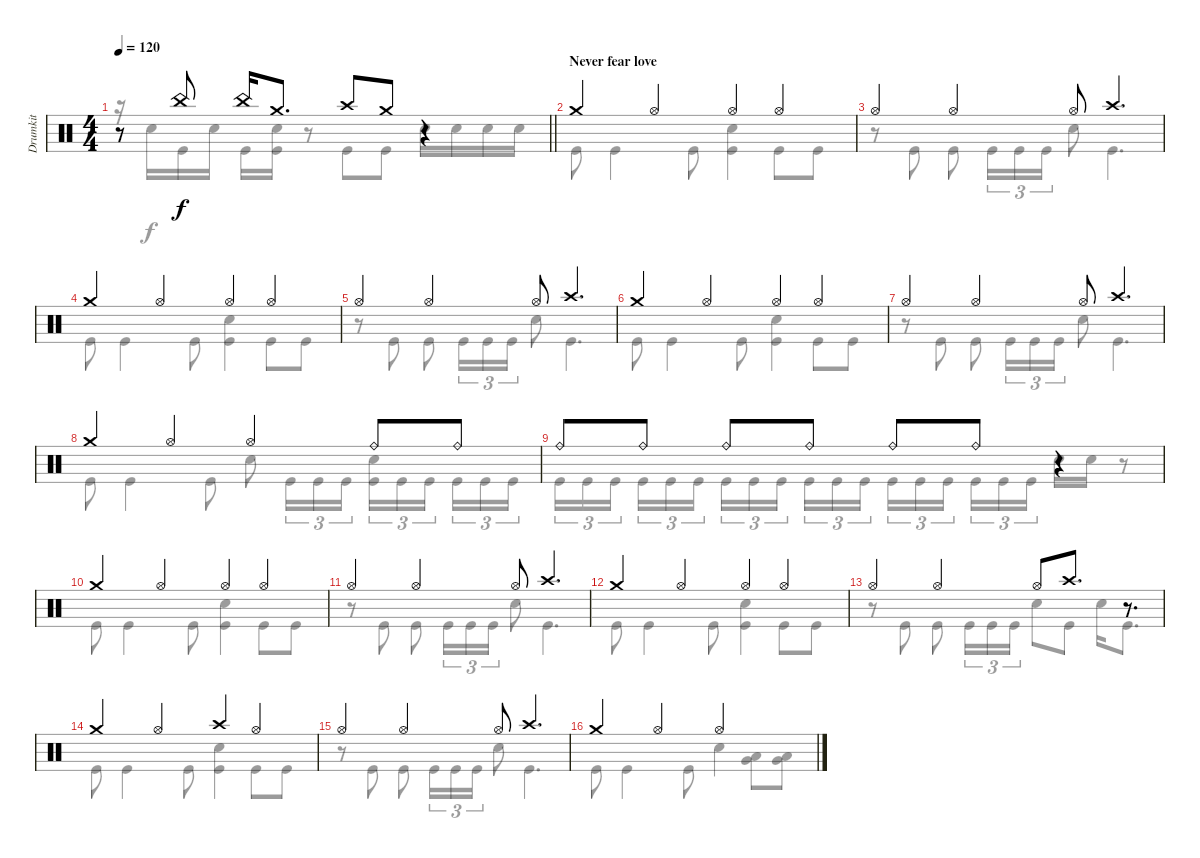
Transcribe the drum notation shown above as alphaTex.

\track ("Drumkit" "Drumkit") {instrument percussion}
\staff {score}
\articulation defaults
\voice
\ts (4 4)
\tempo 120
\clef neutral
\barLineRight lightlight
\ks c
r.8{dy f} "China (hit)".8 "China (hit)".16 "Crash medium (hit)".8{d} "Crash high (hit)".8 "Crash medium (hit)".8 r.4 |
\section ("" "Never fear love")
"Crash medium (hit)".4 "Hi-Hat (open)".4 "Hi-Hat (open)".4 "Hi-Hat (open)".4 |
"Hi-Hat (open)".4 "Hi-Hat (open)".4 "Hi-Hat (open)".8 "Crash high (hit)".4{d} |
"Crash medium (hit)".4 "Hi-Hat (open)".4 "Hi-Hat (open)".4 "Hi-Hat (open)".4 |
"Hi-Hat (open)".4 "Hi-Hat (open)".4 "Hi-Hat (open)".8 "Crash high (hit)".4{d} |
"Crash medium (hit)".4 "Hi-Hat (open)".4 "Hi-Hat (open)".4 "Hi-Hat (open)".4 |
"Hi-Hat (open)".4 "Hi-Hat (open)".4 "Hi-Hat (open)".8 "Crash high (hit)".4{d} |
"Crash medium (hit)".4 "Hi-Hat (open)".4 "Hi-Hat (open)".4 "Ride (bell)".8 "Ride (bell)".8 |
"Ride (bell)".8 "Ride (bell)".8 "Ride (bell)".8 "Ride (bell)".8 "Ride (bell)".8 "Ride (bell)".8 r.4 |
"Crash medium (hit)".4 "Hi-Hat (open)".4 "Hi-Hat (open)".4 "Hi-Hat (open)".4 |
"Hi-Hat (open)".4 "Hi-Hat (open)".4 "Hi-Hat (open)".8 "Crash high (hit)".4{d} |
"Crash medium (hit)".4 "Hi-Hat (open)".4 "Hi-Hat (open)".4 "Hi-Hat (open)".4 |
"Hi-Hat (open)".4 "Hi-Hat (open)".4 "Hi-Hat (open)".8 "Crash high (hit)".8{d} r.8{d} |
"Crash medium (hit)".4 "Hi-Hat (open)".4 "Crash high (hit)".4 "Hi-Hat (open)".4 |
"Hi-Hat (open)".4 "Hi-Hat (open)".4 "Hi-Hat (open)".8 "Crash high (hit)".4{d} |
"Crash medium (hit)".4 "Hi-Hat (open)".4 "Hi-Hat (open)".2
\voice
\clef neutral
\ottava regular
\simile none
\barLineRight lightlight
\ks c
r.16{dy f} "Snare (hit) 2".16 "Kick (hit)".16 "Snare (hit) 2".16 "Kick (hit)".16 ("Snare (hit) 2" "Kick (hit)").16 r.8 "Kick (hit)".8 "Kick (hit)".8 "Snare (hit) 2".16 "Snare (hit) 2".16 "Snare (hit) 2".16 "Snare (hit) 2".16 |
"Kick (hit)".8 "Kick (hit)".4 "Kick (hit)".8 ("Snare (hit) 2" "Kick (hit)").4 "Kick (hit)".8 "Kick (hit)".8 |
r.8 "Kick (hit)".8 "Kick (hit)".8 "Kick (hit)".16{tu (3 2)} "Kick (hit)".16{tu (3 2)} "Kick (hit)".16{tu (3 2)} "Snare (hit) 2".8 "Kick (hit)".4{d} |
"Kick (hit)".8 "Kick (hit)".4 "Kick (hit)".8 ("Snare (hit) 2" "Kick (hit)").4 "Kick (hit)".8 "Kick (hit)".8 |
r.8 "Kick (hit)".8 "Kick (hit)".8 "Kick (hit)".16{tu (3 2)} "Kick (hit)".16{tu (3 2)} "Kick (hit)".16{tu (3 2)} "Snare (hit) 2".8 "Kick (hit)".4{d} |
"Kick (hit)".8 "Kick (hit)".4 "Kick (hit)".8 ("Snare (hit) 2" "Kick (hit)").4 "Kick (hit)".8 "Kick (hit)".8 |
r.8 "Kick (hit)".8 "Kick (hit)".8 "Kick (hit)".16{tu (3 2)} "Kick (hit)".16{tu (3 2)} "Kick (hit)".16{tu (3 2)} "Snare (hit) 2".8 "Kick (hit)".4{d} |
"Kick (hit)".8 "Kick (hit)".4 "Kick (hit)".8 "Snare (hit) 2".8 "Kick (hit)".16{tu (3 2)} "Kick (hit)".16{tu (3 2)} "Kick (hit)".16{tu (3 2)} ("Snare (hit) 2" "Kick (hit)").16{tu (3 2)} "Kick (hit)".16{tu (3 2)} "Kick (hit)".16{tu (3 2) beam splitsecondary} "Kick (hit)".16{tu (3 2)} "Kick (hit)".16{tu (3 2)} "Kick (hit)".16{tu (3 2)} |
"Kick (hit)".16{tu (3 2)} "Kick (hit)".16{tu (3 2)} "Kick (hit)".16{tu (3 2) beam splitsecondary} "Kick (hit)".16{tu (3 2)} "Kick (hit)".16{tu (3 2)} "Kick (hit)".16{tu (3 2)} "Kick (hit)".16{tu (3 2)} "Kick (hit)".16{tu (3 2)} "Kick (hit)".16{tu (3 2) beam splitsecondary} "Kick (hit)".16{tu (3 2)} "Kick (hit)".16{tu (3 2)} "Kick (hit)".16{tu (3 2)} "Kick (hit)".16{tu (3 2)} "Kick (hit)".16{tu (3 2)} "Kick (hit)".16{tu (3 2) beam splitsecondary} "Kick (hit)".16{tu (3 2)} "Kick (hit)".16{tu (3 2)} "Kick (hit)".16{tu (3 2)} "Snare (hit) 2".16 "Snare (hit) 2".16 r.8 |
"Kick (hit)".8 "Kick (hit)".4 "Kick (hit)".8 ("Snare (hit) 2" "Kick (hit)").4 "Kick (hit)".8 "Kick (hit)".8 |
r.8 "Kick (hit)".8 "Kick (hit)".8 "Kick (hit)".16{tu (3 2)} "Kick (hit)".16{tu (3 2)} "Kick (hit)".16{tu (3 2)} "Snare (hit) 2".8 "Kick (hit)".4{d} |
"Kick (hit)".8 "Kick (hit)".4 "Kick (hit)".8 ("Snare (hit) 2" "Kick (hit)").4 "Kick (hit)".8 "Kick (hit)".8 |
r.8 "Kick (hit)".8 "Kick (hit)".8 "Kick (hit)".16{tu (3 2)} "Kick (hit)".16{tu (3 2)} "Kick (hit)".16{tu (3 2)} "Snare (hit) 2".8 "Kick (hit)".8 "Snare (hit) 2".16 "Kick (hit)".8{d} |
"Kick (hit)".8 "Kick (hit)".4 "Kick (hit)".8 ("Snare (hit) 2" "Kick (hit)").4 "Kick (hit)".8 "Kick (hit)".8 |
r.8 "Kick (hit)".8 "Kick (hit)".8 "Kick (hit)".16{tu (3 2)} "Kick (hit)".16{tu (3 2)} "Kick (hit)".16{tu (3 2)} "Snare (hit) 2".8 "Kick (hit)".4{d} |
"Kick (hit)".8 "Kick (hit)".4 "Kick (hit)".8 "Snare (hit) 2".4 ("Low Tom (hit)" "Very Low Tom (hit)").8 ("Low Tom (hit)" "Very Low Tom (hit)").8
